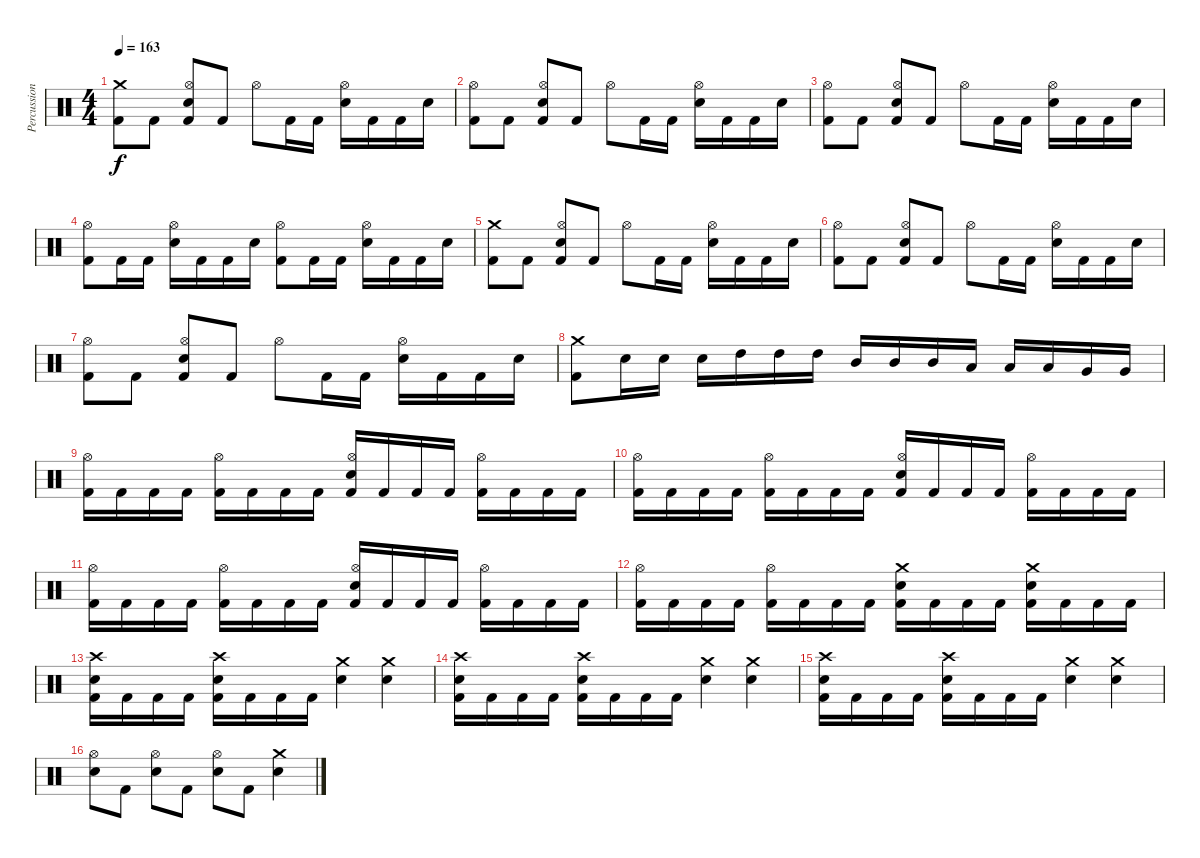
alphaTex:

\track ("Percussion" "Percussion") {instrument percussion}
\staff {score}
\articulation defaults
\ts (4 4)
\tempo 163
\clef neutral
\ks c
("Crash medium (hit)" "Kick (hit) 2").8{dy f} "Kick (hit) 2".8 ("Hi-Hat (open)" "Electric Snare (hit)" "Kick (hit) 2").8 "Kick (hit) 2".8 "Hi-Hat (open)".8 "Kick (hit) 2".16 "Kick (hit) 2".16 ("Hi-Hat (open)" "Electric Snare (hit)").16 "Kick (hit) 2".16 "Kick (hit) 2".16 "Electric Snare (hit)".16 |
("Hi-Hat (open)" "Kick (hit) 2").8 "Kick (hit) 2".8 ("Hi-Hat (open)" "Electric Snare (hit)" "Kick (hit) 2").8 "Kick (hit) 2".8 "Hi-Hat (open)".8 "Kick (hit) 2".16 "Kick (hit) 2".16 ("Hi-Hat (open)" "Electric Snare (hit)").16 "Kick (hit) 2".16 "Kick (hit) 2".16 "Electric Snare (hit)".16 |
("Hi-Hat (open)" "Kick (hit) 2").8 "Kick (hit) 2".8 ("Hi-Hat (open)" "Electric Snare (hit)" "Kick (hit) 2").8 "Kick (hit) 2".8 "Hi-Hat (open)".8 "Kick (hit) 2".16 "Kick (hit) 2".16 ("Hi-Hat (open)" "Electric Snare (hit)").16 "Kick (hit) 2".16 "Kick (hit) 2".16 "Electric Snare (hit)".16 |
("Hi-Hat (open)" "Kick (hit) 2").8 "Kick (hit) 2".16 "Kick (hit) 2".16 ("Hi-Hat (open)" "Electric Snare (hit)").16 "Kick (hit) 2".16 "Kick (hit) 2".16 "Electric Snare (hit)".16 ("Hi-Hat (open)" "Kick (hit) 2").8 "Kick (hit) 2".16 "Kick (hit) 2".16 ("Hi-Hat (open)" "Electric Snare (hit)").16 "Kick (hit) 2".16 "Kick (hit) 2".16 "Electric Snare (hit)".16 |
("Crash medium (hit)" "Kick (hit) 2").8 "Kick (hit) 2".8 ("Hi-Hat (open)" "Electric Snare (hit)" "Kick (hit) 2").8 "Kick (hit) 2".8 "Hi-Hat (open)".8 "Kick (hit) 2".16 "Kick (hit) 2".16 ("Hi-Hat (open)" "Electric Snare (hit)").16 "Kick (hit) 2".16 "Kick (hit) 2".16 "Electric Snare (hit)".16 |
("Hi-Hat (open)" "Kick (hit) 2").8 "Kick (hit) 2".8 ("Hi-Hat (open)" "Electric Snare (hit)" "Kick (hit) 2").8 "Kick (hit) 2".8 "Hi-Hat (open)".8 "Kick (hit) 2".16 "Kick (hit) 2".16 ("Hi-Hat (open)" "Electric Snare (hit)").16 "Kick (hit) 2".16 "Kick (hit) 2".16 "Electric Snare (hit)".16 |
("Hi-Hat (open)" "Kick (hit) 2").8 "Kick (hit) 2".8 ("Hi-Hat (open)" "Electric Snare (hit)" "Kick (hit) 2").8 "Kick (hit) 2".8 "Hi-Hat (open)".8 "Kick (hit) 2".16 "Kick (hit) 2".16 ("Hi-Hat (open)" "Electric Snare (hit)").16 "Kick (hit) 2".16 "Kick (hit) 2".16 "Electric Snare (hit)".16 |
("Crash medium (hit)" "Kick (hit) 2").8 "Electric Snare (hit)".16 "Electric Snare (hit)".16 "Electric Snare (hit)".16 "High Tom (hit)".16 "High Tom (hit)".16 "High Tom (hit)".16 "Mid Tom (hit)".16 "Mid Tom (hit)".16 "Mid Tom (hit)".16 "Low Tom (hit)".16 "Low Tom (hit)".16 "Low Tom (hit)".16 "Very Low Tom (hit)".16 "Very Low Tom (hit)".16 |
("Hi-Hat (open)" "Kick (hit) 2").16 "Kick (hit) 2".16 "Kick (hit) 2".16 "Kick (hit) 2".16 ("Hi-Hat (open)" "Kick (hit) 2").16 "Kick (hit) 2".16 "Kick (hit) 2".16 "Kick (hit) 2".16 ("Hi-Hat (open)" "Electric Snare (hit)" "Kick (hit) 2").16 "Kick (hit) 2".16 "Kick (hit) 2".16 "Kick (hit) 2".16 ("Hi-Hat (open)" "Kick (hit) 2").16 "Kick (hit) 2".16 "Kick (hit) 2".16 "Kick (hit) 2".16 |
("Hi-Hat (open)" "Kick (hit) 2").16 "Kick (hit) 2".16 "Kick (hit) 2".16 "Kick (hit) 2".16 ("Hi-Hat (open)" "Kick (hit) 2").16 "Kick (hit) 2".16 "Kick (hit) 2".16 "Kick (hit) 2".16 ("Hi-Hat (open)" "Electric Snare (hit)" "Kick (hit) 2").16 "Kick (hit) 2".16 "Kick (hit) 2".16 "Kick (hit) 2".16 ("Hi-Hat (open)" "Kick (hit) 2").16 "Kick (hit) 2".16 "Kick (hit) 2".16 "Kick (hit) 2".16 |
("Hi-Hat (open)" "Kick (hit) 2").16 "Kick (hit) 2".16 "Kick (hit) 2".16 "Kick (hit) 2".16 ("Hi-Hat (open)" "Kick (hit) 2").16 "Kick (hit) 2".16 "Kick (hit) 2".16 "Kick (hit) 2".16 ("Hi-Hat (open)" "Electric Snare (hit)" "Kick (hit) 2").16 "Kick (hit) 2".16 "Kick (hit) 2".16 "Kick (hit) 2".16 ("Hi-Hat (open)" "Kick (hit) 2").16 "Kick (hit) 2".16 "Kick (hit) 2".16 "Kick (hit) 2".16 |
("Hi-Hat (open)" "Kick (hit) 2").16 "Kick (hit) 2".16 "Kick (hit) 2".16 "Kick (hit) 2".16 ("Hi-Hat (open)" "Kick (hit) 2").16 "Kick (hit) 2".16 "Kick (hit) 2".16 "Kick (hit) 2".16 ("Crash medium (hit)" "Electric Snare (hit)" "Kick (hit) 2").16 "Kick (hit) 2".16 "Kick (hit) 2".16 "Kick (hit) 2".16 ("Crash medium (hit)" "Electric Snare (hit)" "Kick (hit) 2").16 "Kick (hit) 2".16 "Kick (hit) 2".16 "Kick (hit) 2".16 |
("Crash high (hit)" "Electric Snare (hit)" "Kick (hit) 2").16 "Kick (hit) 2".16 "Kick (hit) 2".16 "Kick (hit) 2".16 ("Crash high (hit)" "Electric Snare (hit)" "Kick (hit) 2").16 "Kick (hit) 2".16 "Kick (hit) 2".16 "Kick (hit) 2".16 ("Crash medium (hit)" "Electric Snare (hit)").4 ("Crash medium (hit)" "Electric Snare (hit)").4 |
("Crash high (hit)" "Electric Snare (hit)" "Kick (hit) 2").16 "Kick (hit) 2".16 "Kick (hit) 2".16 "Kick (hit) 2".16 ("Crash high (hit)" "Electric Snare (hit)" "Kick (hit) 2").16 "Kick (hit) 2".16 "Kick (hit) 2".16 "Kick (hit) 2".16 ("Crash medium (hit)" "Electric Snare (hit)").4 ("Crash medium (hit)" "Electric Snare (hit)").4 |
("Crash high (hit)" "Electric Snare (hit)" "Kick (hit) 2").16 "Kick (hit) 2".16 "Kick (hit) 2".16 "Kick (hit) 2".16 ("Crash high (hit)" "Electric Snare (hit)" "Kick (hit) 2").16 "Kick (hit) 2".16 "Kick (hit) 2".16 "Kick (hit) 2".16 ("Crash medium (hit)" "Electric Snare (hit)").4 ("Crash medium (hit)" "Electric Snare (hit)").4 |
("Hi-Hat (open)" "Electric Snare (hit)").8 "Kick (hit) 2".8 ("Hi-Hat (open)" "Electric Snare (hit)").8 "Kick (hit) 2".8 ("Hi-Hat (open)" "Electric Snare (hit)").8 "Kick (hit) 2".8 ("Crash medium (hit)" "Electric Snare (hit)").4
